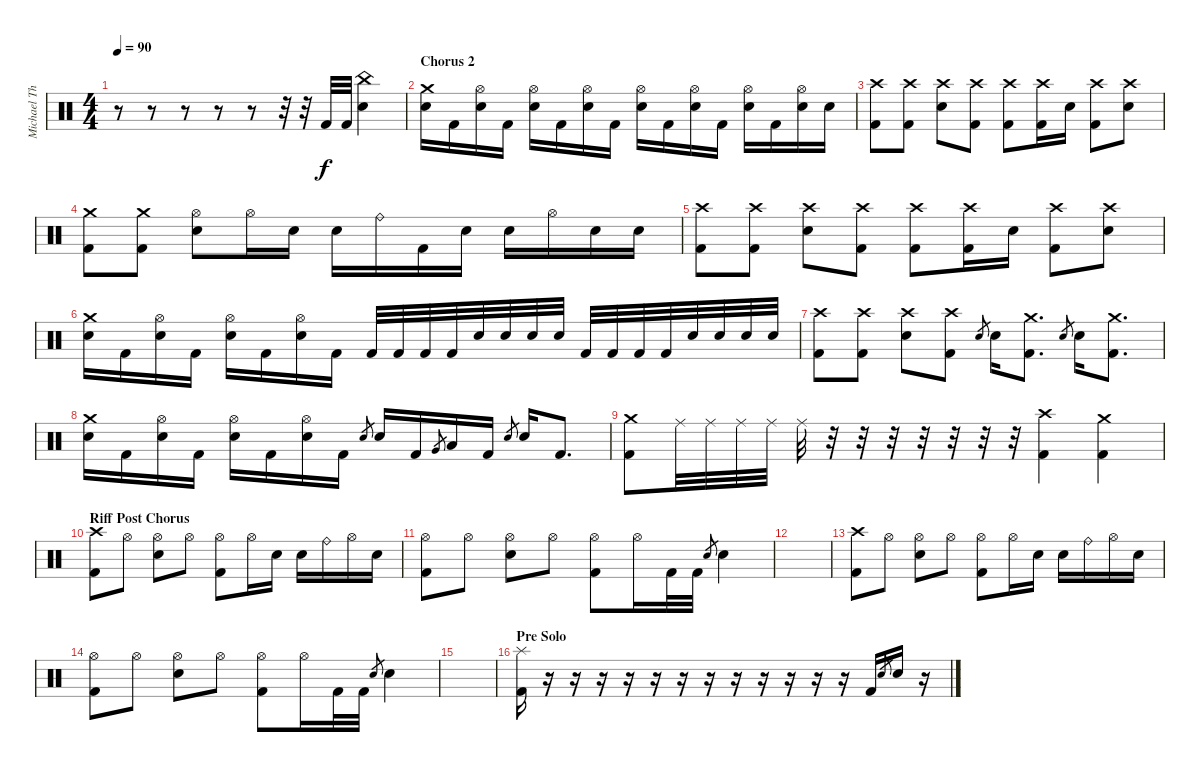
\track ("Michael Thomas" "Michael Th") {instrument percussion}
\staff {score}
\articulation defaults
\ts (4 4)
\tempo 90
\clef neutral
\ks c
r.8{dy f} r.8 r.8 r.8 r.8 r.32 r.32 "Kick (hit) 2".32 "Kick (hit) 2".32 ("China (hit)" "Electric Snare (hit)").4 |
\section ("" "Chorus 2")
("Crash medium (hit)" "Electric Snare (hit)").16 "Kick (hit) 2".16 ("Hi-Hat (open)" "Electric Snare (hit)").16 "Kick (hit) 2".16 ("Hi-Hat (open)" "Electric Snare (hit)").16 "Kick (hit) 2".16 ("Hi-Hat (open)" "Electric Snare (hit)").16 "Kick (hit) 2".16 ("Hi-Hat (open)" "Electric Snare (hit)").16 "Kick (hit) 2".16 ("Hi-Hat (open)" "Electric Snare (hit)").16 "Kick (hit) 2".16 ("Hi-Hat (open)" "Electric Snare (hit)").16 "Kick (hit) 2".16 ("Hi-Hat (open)" "Electric Snare (hit)").16 "Electric Snare (hit)".16 |
("Crash high (hit)" "Kick (hit) 2").8 ("Crash high (hit)" "Kick (hit) 2").8 ("Crash high (hit)" "Electric Snare (hit)").8 ("Crash high (hit)" "Kick (hit) 2").8 ("Crash high (hit)" "Kick (hit) 2").8 ("Crash high (hit)" "Kick (hit) 2").16 "Electric Snare (hit)".16 ("Crash high (hit)" "Kick (hit) 2").8 ("Crash high (hit)" "Electric Snare (hit)").8 |
("Crash medium (hit)" "Kick (hit) 2").8 ("Crash medium (hit)" "Kick (hit) 2").8 ("Hi-Hat (open)" "Electric Snare (hit)").8 "Hi-Hat (open)".16 "Electric Snare (hit)".16 "Electric Snare (hit)".16 "Ride (bell)".16 "Kick (hit) 2".16 "Electric Snare (hit)".16 "Electric Snare (hit)".16 "Hi-Hat (open)".16 "Electric Snare (hit)".16 "Electric Snare (hit)".16 |
("Crash high (hit)" "Kick (hit) 2").8 ("Crash high (hit)" "Kick (hit) 2").8 ("Crash high (hit)" "Electric Snare (hit)").8 ("Crash high (hit)" "Kick (hit) 2").8 ("Crash high (hit)" "Kick (hit) 2").8 ("Crash high (hit)" "Kick (hit) 2").16 "Electric Snare (hit)".16 ("Crash high (hit)" "Kick (hit) 2").8 ("Crash high (hit)" "Electric Snare (hit)").8 |
("Crash medium (hit)" "Electric Snare (hit)").16 "Kick (hit) 2".16 ("Hi-Hat (open)" "Electric Snare (hit)").16 "Kick (hit) 2".16 ("Hi-Hat (open)" "Electric Snare (hit)").16 "Kick (hit) 2".16 ("Hi-Hat (open)" "Electric Snare (hit)").16 "Kick (hit) 2".16 "Kick (hit) 2".32 "Kick (hit) 2".32 "Kick (hit) 2".32 "Kick (hit) 2".32 "Electric Snare (hit)".32 "Electric Snare (hit)".32 "Electric Snare (hit)".32 "Electric Snare (hit)".32 "Kick (hit) 2".32 "Kick (hit) 2".32 "Kick (hit) 2".32 "Kick (hit) 2".32 "Electric Snare (hit)".32 "Electric Snare (hit)".32 "Electric Snare (hit)".32 "Electric Snare (hit)".32 |
("Crash high (hit)" "Kick (hit) 2").8 ("Crash high (hit)" "Kick (hit) 2").8 ("Crash high (hit)" "Electric Snare (hit)").8 ("Crash high (hit)" "Kick (hit) 2").8 "Electric Snare (hit)".8{gr} "Electric Snare (hit)".16 ("Crash medium (hit)" "Kick (hit) 2").8{d} "Electric Snare (hit)".8{gr} "Electric Snare (hit)".16 ("Crash medium (hit)" "Kick (hit) 2").8{d} |
("Crash medium (hit)" "Electric Snare (hit)").16 "Kick (hit) 2".16 ("Hi-Hat (open)" "Electric Snare (hit)").16 "Kick (hit) 2".16 ("Hi-Hat (open)" "Electric Snare (hit)").16 "Kick (hit) 2".16 ("Hi-Hat (open)" "Electric Snare (hit)").16 "Kick (hit) 2".16 "Electric Snare (hit)".8{gr} "Electric Snare (hit)".16 "Kick (hit) 2".16 "Very Low Tom (hit)".8{gr} "Low Floor Tom (hit)".16 "Kick (hit) 2".16 "Electric Snare (hit)".8{gr} "Electric Snare (hit)".16 "Kick (hit) 2".8{d} |
("Crash medium (hit)" "Kick (hit) 2").8 "Ride (middle)".32 "Ride (middle)".32 "Ride (middle)".32 "Ride (middle)".32 "Ride (middle)".32 r.32 r.32 r.32 r.32 r.32 r.32 r.32 ("Crash high (hit)" "Kick (hit) 2").4 ("Crash medium (hit)" "Kick (hit) 2").4 |
\section ("" "Riff Post Chorus")
("Crash high (hit)" "Kick (hit) 2").8 "Hi-Hat (open)".8 ("Hi-Hat (open)" "Electric Snare (hit)").8 "Hi-Hat (open)".8 ("Hi-Hat (open)" "Kick (hit) 2").8 "Hi-Hat (open)".16 "Electric Snare (hit)".16 "Electric Snare (hit)".16 "Ride (bell)".16 "Hi-Hat (open)".16 "Electric Snare (hit)".16 |
("Hi-Hat (open)" "Kick (hit) 2").8 "Hi-Hat (open)".8 ("Hi-Hat (open)" "Electric Snare (hit)").8 "Hi-Hat (open)".8 ("Hi-Hat (open)" "Kick (hit) 2").8 "Hi-Hat (open)".16 "Kick (hit) 2".32 "Kick (hit) 2".32 "Electric Snare (hit)".8{gr} "Electric Snare (hit)".4 |
|
("Crash high (hit)" "Kick (hit) 2").8 "Hi-Hat (open)".8 ("Hi-Hat (open)" "Electric Snare (hit)").8 "Hi-Hat (open)".8 ("Hi-Hat (open)" "Kick (hit) 2").8 "Hi-Hat (open)".16 "Electric Snare (hit)".16 "Electric Snare (hit)".16 "Ride (bell)".16 "Hi-Hat (open)".16 "Electric Snare (hit)".16 |
("Hi-Hat (open)" "Kick (hit) 2").8 "Hi-Hat (open)".8 ("Hi-Hat (open)" "Electric Snare (hit)").8 "Hi-Hat (open)".8 ("Hi-Hat (open)" "Kick (hit) 2").8 "Hi-Hat (open)".16 "Kick (hit) 2".32 "Kick (hit) 2".32 "Electric Snare (hit)".8{gr} "Electric Snare (hit)".4 |
|
\section ("" "Pre Solo")
("Splash (hit)" "Kick (hit) 2").16 r.16 r.16 r.16 r.16 r.16 r.16 r.16 r.16 r.16 r.16 r.16 r.16 "Kick (hit) 2".16 "Electric Snare (hit)".8{gr} "Electric Snare (hit)".16 r.16
